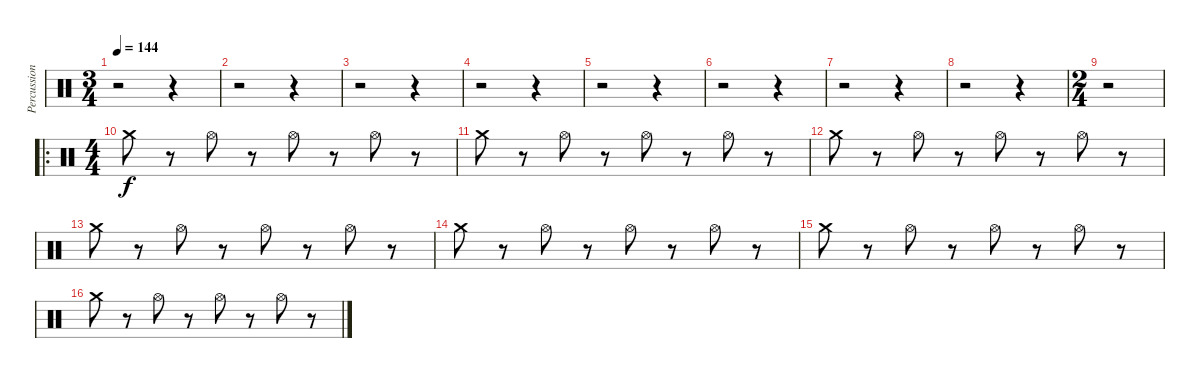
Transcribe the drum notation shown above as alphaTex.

\track ("Percussions" "Percussion") {instrument percussion}
\staff {score}
\articulation defaults
\ts (3 4)
\tempo 144
\clef neutral
\ks c
r.2{dy f} r.4 |
r.2 r.4 |
r.2 r.4 |
r.2 r.4 |
r.2 r.4 |
r.2 r.4 |
r.2 r.4 |
r.2 r.4 |
\ts (2 4)
r.2 |
\ro
\ts (4 4)
"Crash medium (hit)".8 r.8 "Hi-Hat (open)".8 r.8 "Hi-Hat (open)".8 r.8 "Hi-Hat (open)".8 r.8 |
"Crash medium (hit)".8 r.8 "Hi-Hat (open)".8 r.8 "Hi-Hat (open)".8 r.8 "Hi-Hat (open)".8 r.8 |
"Crash medium (hit)".8 r.8 "Hi-Hat (open)".8 r.8 "Hi-Hat (open)".8 r.8 "Hi-Hat (open)".8 r.8 |
"Crash medium (hit)".8 r.8 "Hi-Hat (open)".8 r.8 "Hi-Hat (open)".8 r.8 "Hi-Hat (open)".8 r.8 |
"Crash medium (hit)".8 r.8 "Hi-Hat (open)".8 r.8 "Hi-Hat (open)".8 r.8 "Hi-Hat (open)".8 r.8 |
"Crash medium (hit)".8 r.8 "Hi-Hat (open)".8 r.8 "Hi-Hat (open)".8 r.8 "Hi-Hat (open)".8 r.8 |
"Crash medium (hit)".8 r.8 "Hi-Hat (open)".8 r.8 "Hi-Hat (open)".8 r.8 "Hi-Hat (open)".8 r.8
